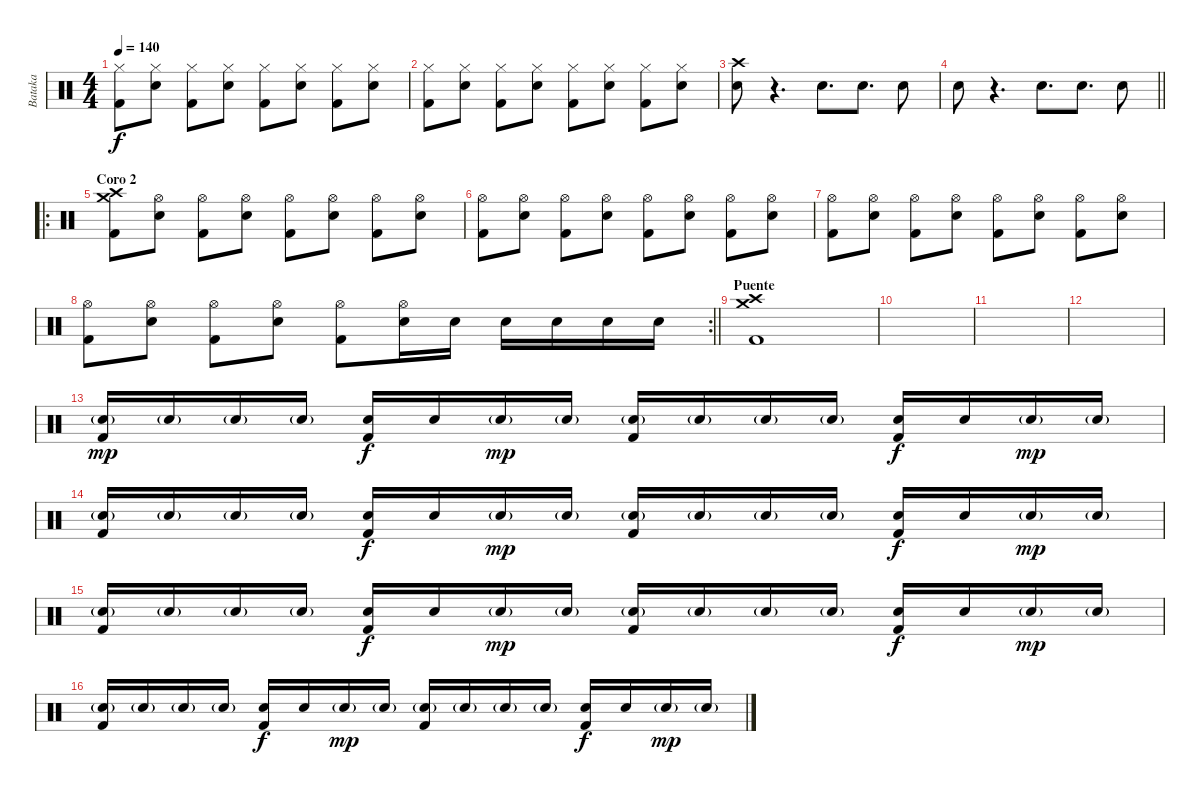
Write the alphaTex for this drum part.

\track ("Bataka" "Bataka") {instrument percussion}
\staff {score}
\articulation defaults
\ts (4 4)
\tempo 140
\clef neutral
\ks c
("Hi-Hat (closed)" "Kick (hit) 2").8{dy f} ("Hi-Hat (closed)" "Electric Snare (hit)").8 ("Hi-Hat (closed)" "Kick (hit) 2").8 ("Hi-Hat (closed)" "Electric Snare (hit)").8 ("Hi-Hat (closed)" "Kick (hit) 2").8 ("Hi-Hat (closed)" "Electric Snare (hit)").8 ("Hi-Hat (closed)" "Kick (hit) 2").8 ("Hi-Hat (closed)" "Electric Snare (hit)").8 |
("Hi-Hat (closed)" "Kick (hit) 2").8 ("Hi-Hat (closed)" "Electric Snare (hit)").8 ("Hi-Hat (closed)" "Kick (hit) 2").8 ("Hi-Hat (closed)" "Electric Snare (hit)").8 ("Hi-Hat (closed)" "Kick (hit) 2").8 ("Hi-Hat (closed)" "Electric Snare (hit)").8 ("Hi-Hat (closed)" "Kick (hit) 2").8 ("Hi-Hat (closed)" "Electric Snare (hit)").8 |
("Crash high (hit)" "Electric Snare (hit)").8 r.4{d} "Electric Snare (hit)".8{d} "Electric Snare (hit)".8{d} "Electric Snare (hit)".8 |
\barLineRight lightlight "Electric Snare (hit)".8
r.4{d} "Electric Snare (hit)".8{d} "Electric Snare (hit)".8{d} "Electric Snare (hit)".8 |
\ro
\section ("" "Coro 2")
("Crash high (hit)" "Crash medium (hit)" "Kick (hit) 2").8 ("Hi-Hat (open)" "Electric Snare (hit)").8 ("Hi-Hat (open)" "Kick (hit) 2").8 ("Hi-Hat (open)" "Electric Snare (hit)").8 ("Hi-Hat (open)" "Kick (hit) 2").8 ("Hi-Hat (open)" "Electric Snare (hit)").8 ("Hi-Hat (open)" "Kick (hit) 2").8 ("Hi-Hat (open)" "Electric Snare (hit)").8 |
("Hi-Hat (open)" "Kick (hit) 2").8 ("Hi-Hat (open)" "Electric Snare (hit)").8 ("Hi-Hat (open)" "Kick (hit) 2").8 ("Hi-Hat (open)" "Electric Snare (hit)").8 ("Hi-Hat (open)" "Kick (hit) 2").8 ("Hi-Hat (open)" "Electric Snare (hit)").8 ("Hi-Hat (open)" "Kick (hit) 2").8 ("Hi-Hat (open)" "Electric Snare (hit)").8 |
("Hi-Hat (open)" "Kick (hit) 2").8 ("Hi-Hat (open)" "Electric Snare (hit)").8 ("Hi-Hat (open)" "Kick (hit) 2").8 ("Hi-Hat (open)" "Electric Snare (hit)").8 ("Hi-Hat (open)" "Kick (hit) 2").8 ("Hi-Hat (open)" "Electric Snare (hit)").8 ("Hi-Hat (open)" "Kick (hit) 2").8 ("Hi-Hat (open)" "Electric Snare (hit)").8 |
\rc 2
\barLineRight lightlight
("Hi-Hat (open)" "Kick (hit) 2").8 ("Hi-Hat (open)" "Electric Snare (hit)").8 ("Hi-Hat (open)" "Kick (hit) 2").8 ("Hi-Hat (open)" "Electric Snare (hit)").8 ("Hi-Hat (open)" "Kick (hit) 2").8 ("Hi-Hat (open)" "Electric Snare (hit)").16 "Electric Snare (hit)".16 "Electric Snare (hit)".16 "Electric Snare (hit)".16 "Electric Snare (hit)".16 "Electric Snare (hit)".16 |
\section ("" "Puente")
("Crash medium (hit)" "Crash high (hit)" "Kick (hit) 2").1 |
|
|
|
("Electric Snare (hit)"{g} "Kick (hit) 2").16{dy mp} "Electric Snare (hit)"{g}.16 "Electric Snare (hit)"{g}.16 "Electric Snare (hit)"{g}.16 ("Electric Snare (hit)" "Kick (hit) 2").16{dy f} "Electric Snare (hit)".16 "Electric Snare (hit)"{g}.16{dy mp} "Electric Snare (hit)"{g}.16 ("Electric Snare (hit)"{g} "Kick (hit) 2").16 "Electric Snare (hit)"{g}.16 "Electric Snare (hit)"{g}.16 "Electric Snare (hit)"{g}.16 ("Electric Snare (hit)" "Kick (hit) 2").16{dy f} "Electric Snare (hit)".16 "Electric Snare (hit)"{g}.16{dy mp} "Electric Snare (hit)"{g}.16 |
("Electric Snare (hit)"{g} "Kick (hit) 2").16 "Electric Snare (hit)"{g}.16 "Electric Snare (hit)"{g}.16 "Electric Snare (hit)"{g}.16 ("Electric Snare (hit)" "Kick (hit) 2").16{dy f} "Electric Snare (hit)".16 "Electric Snare (hit)"{g}.16{dy mp} "Electric Snare (hit)"{g}.16 ("Electric Snare (hit)"{g} "Kick (hit) 2").16 "Electric Snare (hit)"{g}.16 "Electric Snare (hit)"{g}.16 "Electric Snare (hit)"{g}.16 ("Electric Snare (hit)" "Kick (hit) 2").16{dy f} "Electric Snare (hit)".16 "Electric Snare (hit)"{g}.16{dy mp} "Electric Snare (hit)"{g}.16 |
("Electric Snare (hit)"{g} "Kick (hit) 2").16 "Electric Snare (hit)"{g}.16 "Electric Snare (hit)"{g}.16 "Electric Snare (hit)"{g}.16 ("Electric Snare (hit)" "Kick (hit) 2").16{dy f} "Electric Snare (hit)".16 "Electric Snare (hit)"{g}.16{dy mp} "Electric Snare (hit)"{g}.16 ("Electric Snare (hit)"{g} "Kick (hit) 2").16 "Electric Snare (hit)"{g}.16 "Electric Snare (hit)"{g}.16 "Electric Snare (hit)"{g}.16 ("Electric Snare (hit)" "Kick (hit) 2").16{dy f} "Electric Snare (hit)".16 "Electric Snare (hit)"{g}.16{dy mp} "Electric Snare (hit)"{g}.16 |
("Electric Snare (hit)"{g} "Kick (hit) 2").16 "Electric Snare (hit)"{g}.16 "Electric Snare (hit)"{g}.16 "Electric Snare (hit)"{g}.16 ("Electric Snare (hit)" "Kick (hit) 2").16{dy f} "Electric Snare (hit)".16 "Electric Snare (hit)"{g}.16{dy mp} "Electric Snare (hit)"{g}.16 ("Electric Snare (hit)"{g} "Kick (hit) 2").16 "Electric Snare (hit)"{g}.16 "Electric Snare (hit)"{g}.16 "Electric Snare (hit)"{g}.16 ("Electric Snare (hit)" "Kick (hit) 2").16{dy f} "Electric Snare (hit)".16 "Electric Snare (hit)"{g}.16{dy mp} "Electric Snare (hit)"{g}.16
